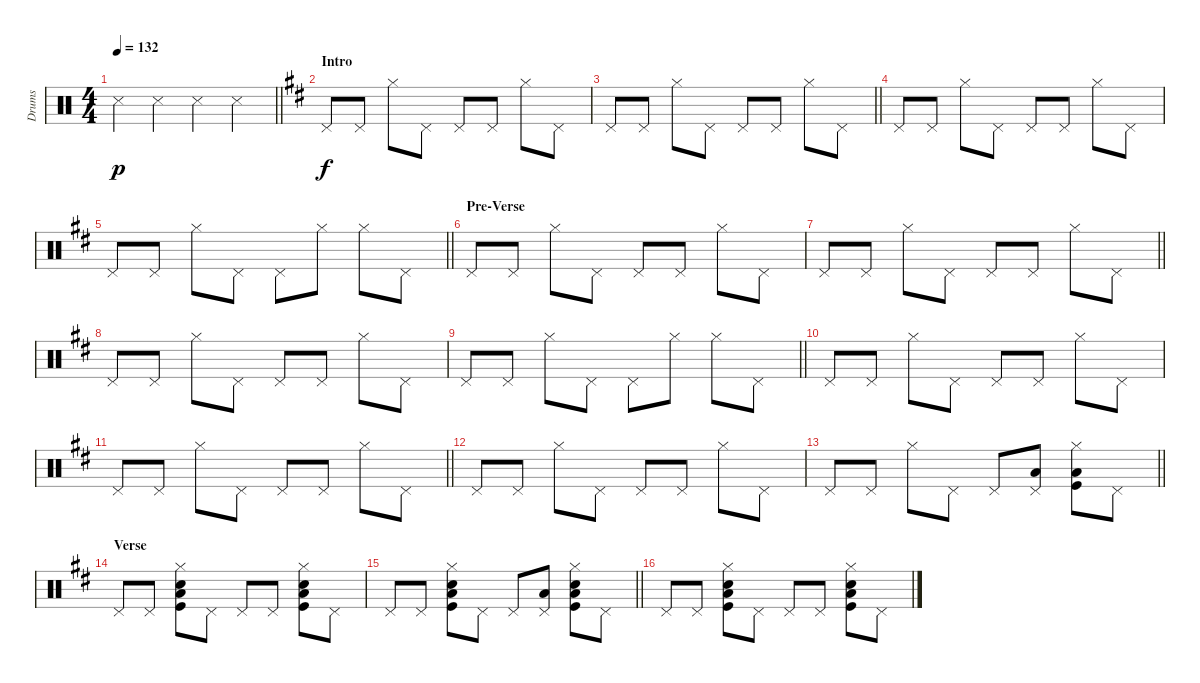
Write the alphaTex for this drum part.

\track ("Drums" "Drums") {instrument percussion}
\staff {score}
\articulation defaults
\ts (4 4)
\tempo 132
\clef neutral
\barLineRight lightlight
\ks c "Metronome (hit)".4{dy p} "Metronome (hit)".4 "Metronome (hit)".4 "Metronome (hit)".4
|
\section ("" "Intro")
\ks d "Pedal Hi-Hat (hit)".8{dy f} "Pedal Hi-Hat (hit)".8 "Hi-Hat (closed)".8 "Pedal Hi-Hat (hit)".8 "Pedal Hi-Hat (hit)".8 "Pedal Hi-Hat (hit)".8 "Hi-Hat (closed)".8 "Pedal Hi-Hat (hit)".8
|
\barLineRight lightlight "Pedal Hi-Hat (hit)".8 "Pedal Hi-Hat (hit)".8 "Hi-Hat (closed)".8 "Pedal Hi-Hat (hit)".8 "Pedal Hi-Hat (hit)".8 "Pedal Hi-Hat (hit)".8 "Hi-Hat (closed)".8 "Pedal Hi-Hat (hit)".8
|
"Pedal Hi-Hat (hit)".8 "Pedal Hi-Hat (hit)".8 "Hi-Hat (closed)".8 "Pedal Hi-Hat (hit)".8 "Pedal Hi-Hat (hit)".8 "Pedal Hi-Hat (hit)".8 "Hi-Hat (closed)".8 "Pedal Hi-Hat (hit)".8 |
\barLineRight lightlight "Pedal Hi-Hat (hit)".8 "Pedal Hi-Hat (hit)".8 "Hi-Hat (closed)".8 "Pedal Hi-Hat (hit)".8 "Pedal Hi-Hat (hit)".8 "Hi-Hat (closed)".8 "Hi-Hat (closed)".8 "Pedal Hi-Hat (hit)".8
|
\section ("" "Pre-Verse")
"Pedal Hi-Hat (hit)".8 "Pedal Hi-Hat (hit)".8 "Hi-Hat (closed)".8 "Pedal Hi-Hat (hit)".8 "Pedal Hi-Hat (hit)".8 "Pedal Hi-Hat (hit)".8 "Hi-Hat (closed)".8 "Pedal Hi-Hat (hit)".8 |
\barLineRight lightlight "Pedal Hi-Hat (hit)".8 "Pedal Hi-Hat (hit)".8 "Hi-Hat (closed)".8 "Pedal Hi-Hat (hit)".8 "Pedal Hi-Hat (hit)".8 "Pedal Hi-Hat (hit)".8 "Hi-Hat (closed)".8 "Pedal Hi-Hat (hit)".8
|
"Pedal Hi-Hat (hit)".8 "Pedal Hi-Hat (hit)".8 "Hi-Hat (closed)".8 "Pedal Hi-Hat (hit)".8 "Pedal Hi-Hat (hit)".8 "Pedal Hi-Hat (hit)".8 "Hi-Hat (closed)".8 "Pedal Hi-Hat (hit)".8 |
\barLineRight lightlight "Pedal Hi-Hat (hit)".8 "Pedal Hi-Hat (hit)".8 "Hi-Hat (closed)".8 "Pedal Hi-Hat (hit)".8 "Pedal Hi-Hat (hit)".8 "Hi-Hat (closed)".8 "Hi-Hat (closed)".8 "Pedal Hi-Hat (hit)".8
|
"Pedal Hi-Hat (hit)".8 "Pedal Hi-Hat (hit)".8 "Hi-Hat (closed)".8 "Pedal Hi-Hat (hit)".8 "Pedal Hi-Hat (hit)".8 "Pedal Hi-Hat (hit)".8 "Hi-Hat (closed)".8 "Pedal Hi-Hat (hit)".8 |
\barLineRight lightlight "Pedal Hi-Hat (hit)".8 "Pedal Hi-Hat (hit)".8 "Hi-Hat (closed)".8 "Pedal Hi-Hat (hit)".8 "Pedal Hi-Hat (hit)".8 "Pedal Hi-Hat (hit)".8 "Hi-Hat (closed)".8 "Pedal Hi-Hat (hit)".8
|
"Pedal Hi-Hat (hit)".8 "Pedal Hi-Hat (hit)".8 "Hi-Hat (closed)".8 "Pedal Hi-Hat (hit)".8 "Pedal Hi-Hat (hit)".8 "Pedal Hi-Hat (hit)".8 "Hi-Hat (closed)".8 "Pedal Hi-Hat (hit)".8 |
\barLineRight lightlight "Pedal Hi-Hat (hit)".8 "Pedal Hi-Hat (hit)".8 "Hi-Hat (closed)".8 "Pedal Hi-Hat (hit)".8 "Pedal Hi-Hat (hit)".8
("Pedal Hi-Hat (hit)" "Low Tom (hit)").8 ("Hi-Hat (closed)" "Low Floor Tom (hit)" "Kick (hit)").8 "Pedal Hi-Hat (hit)".8 |
\section ("" "Verse")
"Pedal Hi-Hat (hit)".8 "Pedal Hi-Hat (hit)".8 ("Hi-Hat (closed)" "Hand Clap (hit)" "Low Floor Tom (hit)" "Kick (hit)").8 "Pedal Hi-Hat (hit)".8 "Pedal Hi-Hat (hit)".8 "Pedal Hi-Hat (hit)".8 ("Hi-Hat (closed)" "Hand Clap (hit)" "Low Floor Tom (hit)" "Kick (hit)").8 "Pedal Hi-Hat (hit)".8 |
\barLineRight lightlight "Pedal Hi-Hat (hit)".8 "Pedal Hi-Hat (hit)".8
("Hi-Hat (closed)" "Hand Clap (hit)" "Low Floor Tom (hit)" "Kick (hit)").8 "Pedal Hi-Hat (hit)".8 "Pedal Hi-Hat (hit)".8 ("Pedal Hi-Hat (hit)" "Low Tom (hit)").8 ("Hi-Hat (closed)" "Hand Clap (hit)" "Low Floor Tom (hit)" "Kick (hit)").8 "Pedal Hi-Hat (hit)".8 |
"Pedal Hi-Hat (hit)".8 "Pedal Hi-Hat (hit)".8 ("Hi-Hat (closed)" "Hand Clap (hit)" "Low Floor Tom (hit)" "Kick (hit)").8 "Pedal Hi-Hat (hit)".8 "Pedal Hi-Hat (hit)".8 "Pedal Hi-Hat (hit)".8 ("Hi-Hat (closed)" "Hand Clap (hit)" "Low Floor Tom (hit)" "Kick (hit)").8 "Pedal Hi-Hat (hit)".8
